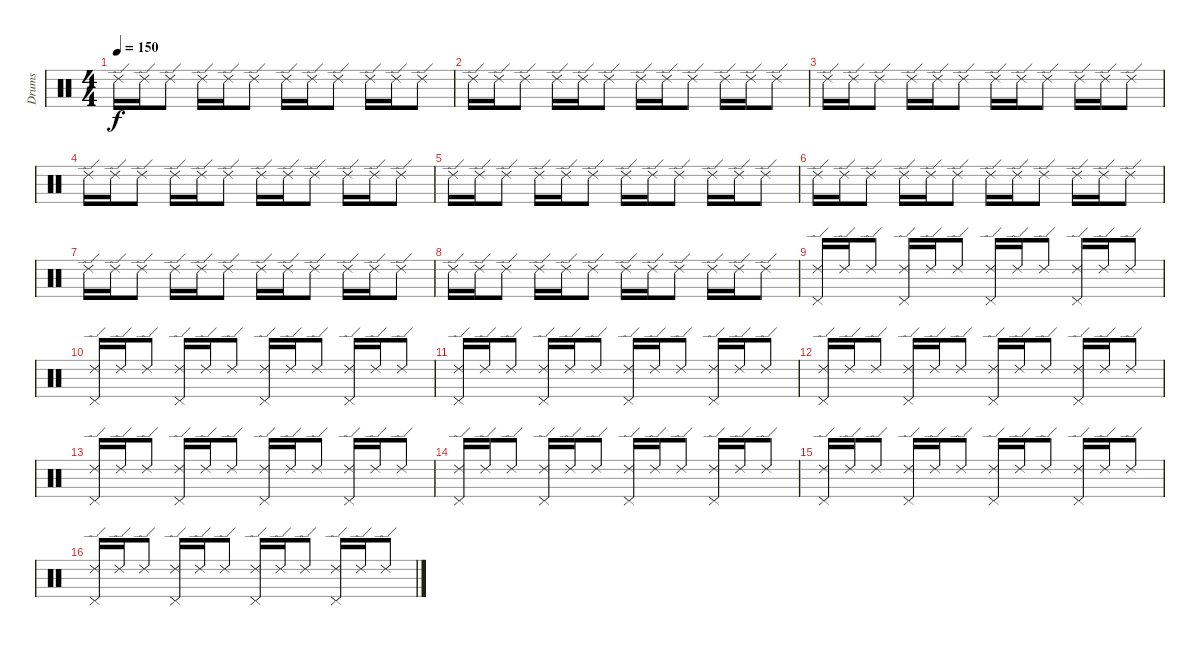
\track ("Drums" "Drums") {instrument percussion}
\staff {score}
\articulation defaults
\ts (4 4)
\tempo 150
\clef neutral
\ks c "Ride (edge) 2".16{dy f} "Ride (edge) 2".16 "Ride (edge) 2".8 "Ride (edge) 2".16 "Ride (edge) 2".16 "Ride (edge) 2".8 "Ride (edge) 2".16 "Ride (edge) 2".16 "Ride (edge) 2".8 "Ride (edge) 2".16 "Ride (edge) 2".16 "Ride (edge) 2".8
|
"Ride (edge) 2".16 "Ride (edge) 2".16 "Ride (edge) 2".8 "Ride (edge) 2".16 "Ride (edge) 2".16 "Ride (edge) 2".8 "Ride (edge) 2".16 "Ride (edge) 2".16 "Ride (edge) 2".8 "Ride (edge) 2".16 "Ride (edge) 2".16 "Ride (edge) 2".8 |
"Ride (edge) 2".16 "Ride (edge) 2".16 "Ride (edge) 2".8 "Ride (edge) 2".16 "Ride (edge) 2".16 "Ride (edge) 2".8 "Ride (edge) 2".16 "Ride (edge) 2".16 "Ride (edge) 2".8 "Ride (edge) 2".16 "Ride (edge) 2".16 "Ride (edge) 2".8 |
"Ride (edge) 2".16 "Ride (edge) 2".16 "Ride (edge) 2".8 "Ride (edge) 2".16 "Ride (edge) 2".16 "Ride (edge) 2".8 "Ride (edge) 2".16 "Ride (edge) 2".16 "Ride (edge) 2".8 "Ride (edge) 2".16 "Ride (edge) 2".16 "Ride (edge) 2".8 |
"Ride (edge) 2".16 "Ride (edge) 2".16 "Ride (edge) 2".8 "Ride (edge) 2".16 "Ride (edge) 2".16 "Ride (edge) 2".8 "Ride (edge) 2".16 "Ride (edge) 2".16 "Ride (edge) 2".8 "Ride (edge) 2".16 "Ride (edge) 2".16 "Ride (edge) 2".8 |
"Ride (edge) 2".16 "Ride (edge) 2".16 "Ride (edge) 2".8 "Ride (edge) 2".16 "Ride (edge) 2".16 "Ride (edge) 2".8 "Ride (edge) 2".16 "Ride (edge) 2".16 "Ride (edge) 2".8 "Ride (edge) 2".16 "Ride (edge) 2".16 "Ride (edge) 2".8 |
"Ride (edge) 2".16 "Ride (edge) 2".16 "Ride (edge) 2".8 "Ride (edge) 2".16 "Ride (edge) 2".16 "Ride (edge) 2".8 "Ride (edge) 2".16 "Ride (edge) 2".16 "Ride (edge) 2".8 "Ride (edge) 2".16 "Ride (edge) 2".16 "Ride (edge) 2".8 |
"Ride (edge) 2".16 "Ride (edge) 2".16 "Ride (edge) 2".8 "Ride (edge) 2".16 "Ride (edge) 2".16 "Ride (edge) 2".8 "Ride (edge) 2".16 "Ride (edge) 2".16 "Ride (edge) 2".8 "Ride (edge) 2".16 "Ride (edge) 2".16 "Ride (edge) 2".8 |
("Ride (edge) 2" "Pedal Hi-Hat (hit)").16 "Ride (edge) 2".16 "Ride (edge) 2".8 ("Ride (edge) 2" "Pedal Hi-Hat (hit)").16 "Ride (edge) 2".16 "Ride (edge) 2".8 ("Ride (edge) 2" "Pedal Hi-Hat (hit)").16 "Ride (edge) 2".16 "Ride (edge) 2".8 ("Ride (edge) 2" "Pedal Hi-Hat (hit)").16 "Ride (edge) 2".16 "Ride (edge) 2".8 |
("Ride (edge) 2" "Pedal Hi-Hat (hit)").16 "Ride (edge) 2".16 "Ride (edge) 2".8 ("Ride (edge) 2" "Pedal Hi-Hat (hit)").16 "Ride (edge) 2".16 "Ride (edge) 2".8 ("Ride (edge) 2" "Pedal Hi-Hat (hit)").16 "Ride (edge) 2".16 "Ride (edge) 2".8 ("Ride (edge) 2" "Pedal Hi-Hat (hit)").16 "Ride (edge) 2".16 "Ride (edge) 2".8 |
("Ride (edge) 2" "Pedal Hi-Hat (hit)").16 "Ride (edge) 2".16 "Ride (edge) 2".8 ("Ride (edge) 2" "Pedal Hi-Hat (hit)").16 "Ride (edge) 2".16 "Ride (edge) 2".8 ("Ride (edge) 2" "Pedal Hi-Hat (hit)").16 "Ride (edge) 2".16 "Ride (edge) 2".8 ("Ride (edge) 2" "Pedal Hi-Hat (hit)").16 "Ride (edge) 2".16 "Ride (edge) 2".8 |
("Ride (edge) 2" "Pedal Hi-Hat (hit)").16 "Ride (edge) 2".16 "Ride (edge) 2".8 ("Ride (edge) 2" "Pedal Hi-Hat (hit)").16 "Ride (edge) 2".16 "Ride (edge) 2".8 ("Ride (edge) 2" "Pedal Hi-Hat (hit)").16 "Ride (edge) 2".16 "Ride (edge) 2".8 ("Ride (edge) 2" "Pedal Hi-Hat (hit)").16 "Ride (edge) 2".16 "Ride (edge) 2".8 |
("Ride (edge) 2" "Pedal Hi-Hat (hit)").16 "Ride (edge) 2".16 "Ride (edge) 2".8 ("Ride (edge) 2" "Pedal Hi-Hat (hit)").16 "Ride (edge) 2".16 "Ride (edge) 2".8 ("Ride (edge) 2" "Pedal Hi-Hat (hit)").16 "Ride (edge) 2".16 "Ride (edge) 2".8 ("Ride (edge) 2" "Pedal Hi-Hat (hit)").16 "Ride (edge) 2".16 "Ride (edge) 2".8 |
("Ride (edge) 2" "Pedal Hi-Hat (hit)").16 "Ride (edge) 2".16 "Ride (edge) 2".8 ("Ride (edge) 2" "Pedal Hi-Hat (hit)").16 "Ride (edge) 2".16 "Ride (edge) 2".8 ("Ride (edge) 2" "Pedal Hi-Hat (hit)").16 "Ride (edge) 2".16 "Ride (edge) 2".8 ("Ride (edge) 2" "Pedal Hi-Hat (hit)").16 "Ride (edge) 2".16 "Ride (edge) 2".8 |
("Ride (edge) 2" "Pedal Hi-Hat (hit)").16 "Ride (edge) 2".16 "Ride (edge) 2".8 ("Ride (edge) 2" "Pedal Hi-Hat (hit)").16 "Ride (edge) 2".16 "Ride (edge) 2".8 ("Ride (edge) 2" "Pedal Hi-Hat (hit)").16 "Ride (edge) 2".16 "Ride (edge) 2".8 ("Ride (edge) 2" "Pedal Hi-Hat (hit)").16 "Ride (edge) 2".16 "Ride (edge) 2".8 |
("Ride (edge) 2" "Pedal Hi-Hat (hit)").16 "Ride (edge) 2".16 "Ride (edge) 2".8 ("Ride (edge) 2" "Pedal Hi-Hat (hit)").16 "Ride (edge) 2".16 "Ride (edge) 2".8 ("Ride (edge) 2" "Pedal Hi-Hat (hit)").16 "Ride (edge) 2".16 "Ride (edge) 2".8 ("Ride (edge) 2" "Pedal Hi-Hat (hit)").16 "Ride (edge) 2".16 "Ride (edge) 2".8
